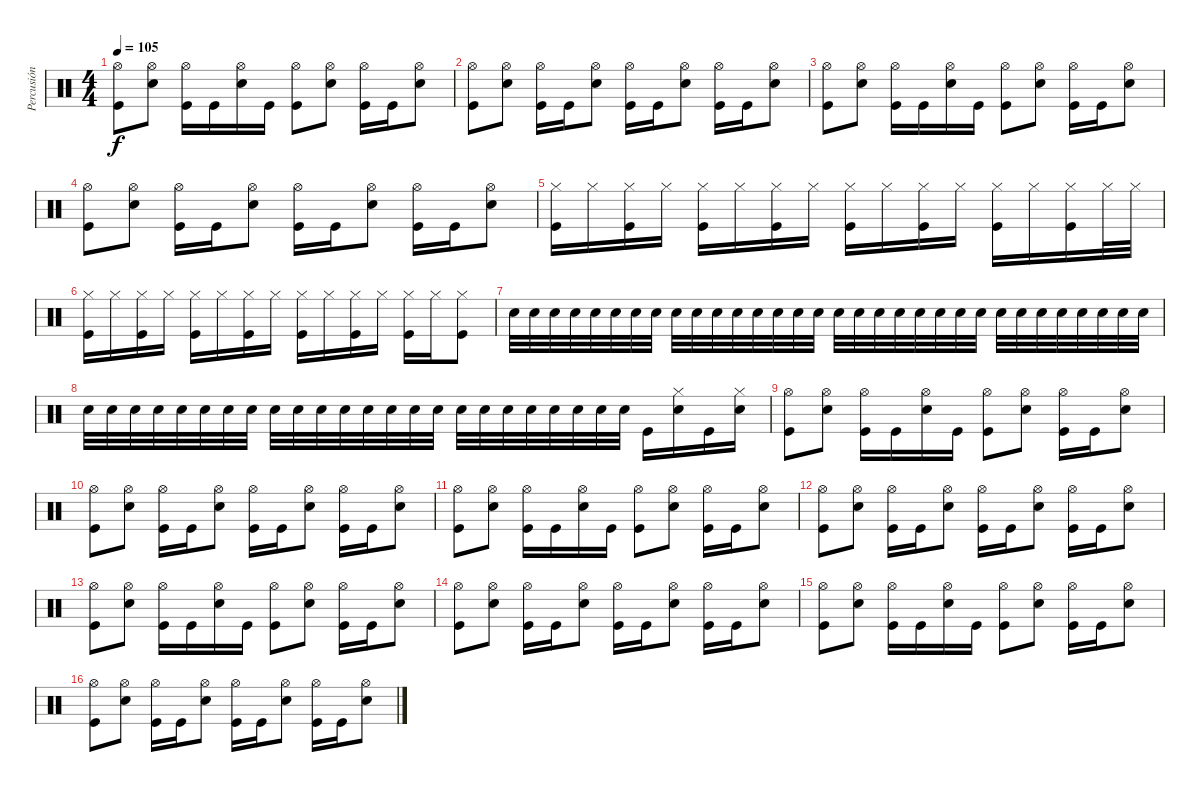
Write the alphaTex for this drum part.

\track ("Percusión" "Percusión") {instrument percussion}
\staff {score}
\articulation defaults
\ts (4 4)
\tempo 105
\clef neutral
\ks c
("Hi-Hat (open)" "Kick (hit)").8{dy f} ("Hi-Hat (open)" "Electric Snare (hit)").8 ("Hi-Hat (open)" "Kick (hit)").16 "Kick (hit)".16 ("Hi-Hat (open)" "Electric Snare (hit)").16 "Kick (hit)".16 ("Hi-Hat (open)" "Kick (hit)").8 ("Electric Snare (hit)" "Hi-Hat (open)").8 ("Hi-Hat (open)" "Kick (hit)").16 "Kick (hit)".16 ("Hi-Hat (open)" "Electric Snare (hit)").8 |
("Kick (hit)" "Hi-Hat (open)").8 ("Electric Snare (hit)" "Hi-Hat (open)").8 ("Kick (hit)" "Hi-Hat (open)").16 "Kick (hit)".16 ("Electric Snare (hit)" "Hi-Hat (open)").8 ("Kick (hit)" "Hi-Hat (open)").16 "Kick (hit)".16 ("Electric Snare (hit)" "Hi-Hat (open)").8 ("Kick (hit)" "Hi-Hat (open)").16 "Kick (hit)".16 ("Hi-Hat (open)" "Electric Snare (hit)").8 |
("Hi-Hat (open)" "Kick (hit)").8 ("Hi-Hat (open)" "Electric Snare (hit)").8 ("Hi-Hat (open)" "Kick (hit)").16 "Kick (hit)".16 ("Hi-Hat (open)" "Electric Snare (hit)").16 "Kick (hit)".16 ("Hi-Hat (open)" "Kick (hit)").8 ("Electric Snare (hit)" "Hi-Hat (open)").8 ("Hi-Hat (open)" "Kick (hit)").16 "Kick (hit)".16 ("Hi-Hat (open)" "Electric Snare (hit)").8 |
("Kick (hit)" "Hi-Hat (open)").8 ("Electric Snare (hit)" "Hi-Hat (open)").8 ("Kick (hit)" "Hi-Hat (open)").16 "Kick (hit)".16 ("Electric Snare (hit)" "Hi-Hat (open)").8 ("Kick (hit)" "Hi-Hat (open)").16 "Kick (hit)".16 ("Electric Snare (hit)" "Hi-Hat (open)").8 ("Kick (hit)" "Hi-Hat (open)").16 "Kick (hit)".16 ("Hi-Hat (open)" "Electric Snare (hit)").8 |
("Hi-Hat (closed)" "Kick (hit)").16 "Hi-Hat (closed)".16 ("Hi-Hat (closed)" "Kick (hit)").16 "Hi-Hat (closed)".16 ("Hi-Hat (closed)" "Kick (hit)").16 "Hi-Hat (closed)".16 ("Hi-Hat (closed)" "Kick (hit)").16 "Hi-Hat (closed)".16 ("Hi-Hat (closed)" "Kick (hit)").16 "Hi-Hat (closed)".16 ("Hi-Hat (closed)" "Kick (hit)").16 "Hi-Hat (closed)".16 ("Hi-Hat (closed)" "Kick (hit)").16 "Hi-Hat (closed)".16 ("Hi-Hat (closed)" "Kick (hit)").16 "Hi-Hat (closed)".32 "Hi-Hat (closed)".32 |
("Hi-Hat (closed)" "Kick (hit)").16 "Hi-Hat (closed)".16 ("Hi-Hat (closed)" "Kick (hit)").16 "Hi-Hat (closed)".16 ("Hi-Hat (closed)" "Kick (hit)").16 "Hi-Hat (closed)".16 ("Hi-Hat (closed)" "Kick (hit)").16 "Hi-Hat (closed)".16 ("Hi-Hat (closed)" "Kick (hit)").16 "Hi-Hat (closed)".16 ("Hi-Hat (closed)" "Kick (hit)").16 "Hi-Hat (closed)".16 ("Hi-Hat (closed)" "Kick (hit)").16 "Hi-Hat (closed)".16 ("Hi-Hat (closed)" "Kick (hit)").8 |
"Electric Snare (hit)".32 "Electric Snare (hit)".32 "Electric Snare (hit)".32 "Electric Snare (hit)".32 "Electric Snare (hit)".32 "Electric Snare (hit)".32 "Electric Snare (hit)".32 "Electric Snare (hit)".32 "Electric Snare (hit)".32 "Electric Snare (hit)".32 "Electric Snare (hit)".32 "Electric Snare (hit)".32 "Electric Snare (hit)".32 "Electric Snare (hit)".32 "Electric Snare (hit)".32 "Electric Snare (hit)".32 "Electric Snare (hit)".32 "Electric Snare (hit)".32 "Electric Snare (hit)".32 "Electric Snare (hit)".32 "Electric Snare (hit)".32 "Electric Snare (hit)".32 "Electric Snare (hit)".32 "Electric Snare (hit)".32 "Electric Snare (hit)".32 "Electric Snare (hit)".32 "Electric Snare (hit)".32 "Electric Snare (hit)".32 "Electric Snare (hit)".32 "Electric Snare (hit)".32 "Electric Snare (hit)".32 "Electric Snare (hit)".32 |
"Electric Snare (hit)".32 "Electric Snare (hit)".32 "Electric Snare (hit)".32 "Electric Snare (hit)".32 "Electric Snare (hit)".32 "Electric Snare (hit)".32 "Electric Snare (hit)".32 "Electric Snare (hit)".32 "Electric Snare (hit)".32 "Electric Snare (hit)".32 "Electric Snare (hit)".32 "Electric Snare (hit)".32 "Electric Snare (hit)".32 "Electric Snare (hit)".32 "Electric Snare (hit)".32 "Electric Snare (hit)".32 "Electric Snare (hit)".32 "Electric Snare (hit)".32 "Electric Snare (hit)".32 "Electric Snare (hit)".32 "Electric Snare (hit)".32 "Electric Snare (hit)".32 "Electric Snare (hit)".32 "Electric Snare (hit)".32 "Kick (hit)".16 ("Electric Snare (hit)" "Hi-Hat (closed)").16 "Kick (hit)".16 ("Electric Snare (hit)" "Hi-Hat (closed)").16 |
("Hi-Hat (open)" "Kick (hit)").8 ("Hi-Hat (open)" "Electric Snare (hit)").8 ("Hi-Hat (open)" "Kick (hit)").16 "Kick (hit)".16 ("Hi-Hat (open)" "Electric Snare (hit)").16 "Kick (hit)".16 ("Hi-Hat (open)" "Kick (hit)").8 ("Electric Snare (hit)" "Hi-Hat (open)").8 ("Hi-Hat (open)" "Kick (hit)").16 "Kick (hit)".16 ("Hi-Hat (open)" "Electric Snare (hit)").8 |
("Kick (hit)" "Hi-Hat (open)").8 ("Electric Snare (hit)" "Hi-Hat (open)").8 ("Kick (hit)" "Hi-Hat (open)").16 "Kick (hit)".16 ("Electric Snare (hit)" "Hi-Hat (open)").8 ("Kick (hit)" "Hi-Hat (open)").16 "Kick (hit)".16 ("Electric Snare (hit)" "Hi-Hat (open)").8 ("Kick (hit)" "Hi-Hat (open)").16 "Kick (hit)".16 ("Hi-Hat (open)" "Electric Snare (hit)").8 |
("Hi-Hat (open)" "Kick (hit)").8 ("Hi-Hat (open)" "Electric Snare (hit)").8 ("Hi-Hat (open)" "Kick (hit)").16 "Kick (hit)".16 ("Hi-Hat (open)" "Electric Snare (hit)").16 "Kick (hit)".16 ("Hi-Hat (open)" "Kick (hit)").8 ("Electric Snare (hit)" "Hi-Hat (open)").8 ("Hi-Hat (open)" "Kick (hit)").16 "Kick (hit)".16 ("Hi-Hat (open)" "Electric Snare (hit)").8 |
("Kick (hit)" "Hi-Hat (open)").8 ("Electric Snare (hit)" "Hi-Hat (open)").8 ("Kick (hit)" "Hi-Hat (open)").16 "Kick (hit)".16 ("Electric Snare (hit)" "Hi-Hat (open)").8 ("Kick (hit)" "Hi-Hat (open)").16 "Kick (hit)".16 ("Electric Snare (hit)" "Hi-Hat (open)").8 ("Kick (hit)" "Hi-Hat (open)").16 "Kick (hit)".16 ("Hi-Hat (open)" "Electric Snare (hit)").8 |
("Hi-Hat (open)" "Kick (hit)").8 ("Hi-Hat (open)" "Electric Snare (hit)").8 ("Hi-Hat (open)" "Kick (hit)").16 "Kick (hit)".16 ("Hi-Hat (open)" "Electric Snare (hit)").16 "Kick (hit)".16 ("Hi-Hat (open)" "Kick (hit)").8 ("Electric Snare (hit)" "Hi-Hat (open)").8 ("Hi-Hat (open)" "Kick (hit)").16 "Kick (hit)".16 ("Hi-Hat (open)" "Electric Snare (hit)").8 |
("Kick (hit)" "Hi-Hat (open)").8 ("Electric Snare (hit)" "Hi-Hat (open)").8 ("Kick (hit)" "Hi-Hat (open)").16 "Kick (hit)".16 ("Electric Snare (hit)" "Hi-Hat (open)").8 ("Kick (hit)" "Hi-Hat (open)").16 "Kick (hit)".16 ("Electric Snare (hit)" "Hi-Hat (open)").8 ("Kick (hit)" "Hi-Hat (open)").16 "Kick (hit)".16 ("Hi-Hat (open)" "Electric Snare (hit)").8 |
("Hi-Hat (open)" "Kick (hit)").8 ("Hi-Hat (open)" "Electric Snare (hit)").8 ("Hi-Hat (open)" "Kick (hit)").16 "Kick (hit)".16 ("Hi-Hat (open)" "Electric Snare (hit)").16 "Kick (hit)".16 ("Hi-Hat (open)" "Kick (hit)").8 ("Electric Snare (hit)" "Hi-Hat (open)").8 ("Hi-Hat (open)" "Kick (hit)").16 "Kick (hit)".16 ("Hi-Hat (open)" "Electric Snare (hit)").8 |
("Kick (hit)" "Hi-Hat (open)").8 ("Electric Snare (hit)" "Hi-Hat (open)").8 ("Kick (hit)" "Hi-Hat (open)").16 "Kick (hit)".16 ("Electric Snare (hit)" "Hi-Hat (open)").8 ("Kick (hit)" "Hi-Hat (open)").16 "Kick (hit)".16 ("Electric Snare (hit)" "Hi-Hat (open)").8 ("Kick (hit)" "Hi-Hat (open)").16 "Kick (hit)".16 ("Hi-Hat (open)" "Electric Snare (hit)").8
